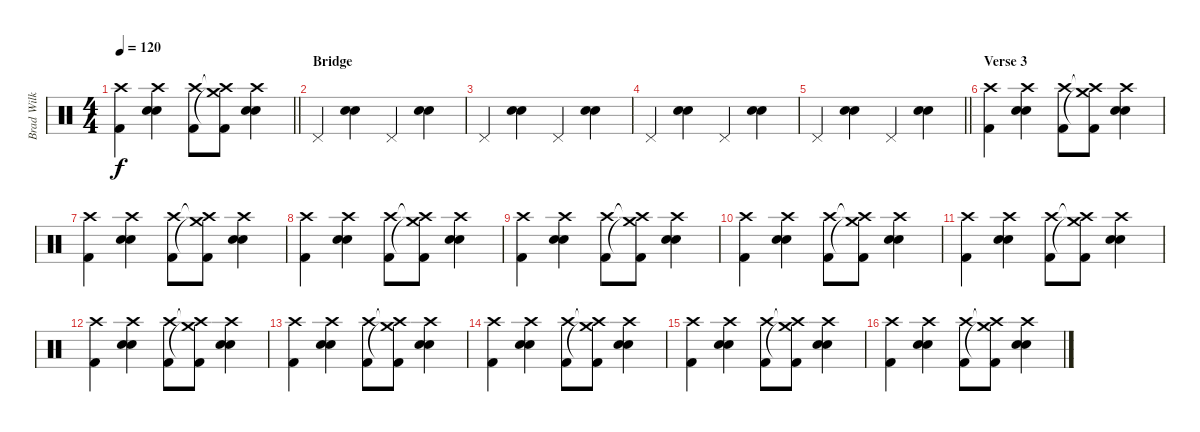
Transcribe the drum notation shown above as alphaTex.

\track ("Brad Wilk" "Brad Wilk") {instrument percussion}
\staff {score}
\articulation defaults
\ts (4 4)
\tempo 120
\clef neutral
\barLineRight lightlight
\ks c
("Crash high (hit)" "Kick (hit) 2").4{dy f} ("Electric Snare (hit)" "Snare (hit) 2" "Crash high (hit)").4 ("Crash high (hit)" "Kick (hit) 2").8 ("Crash high (hit)"{t} "Crash medium (hit)"{t} "Kick (hit) 2").8 ("Electric Snare (hit)" "Snare (hit) 2" "Crash high (hit)").4 |
\section ("" "Bridge")
"Pedal Hi-Hat (hit)".4 ("Electric Snare (hit)" "Snare (hit) 2").4 "Pedal Hi-Hat (hit)".4 ("Electric Snare (hit)" "Snare (hit) 2").4 |
"Pedal Hi-Hat (hit)".4 ("Electric Snare (hit)" "Snare (hit) 2").4 "Pedal Hi-Hat (hit)".4 ("Electric Snare (hit)" "Snare (hit) 2").4 |
"Pedal Hi-Hat (hit)".4 ("Electric Snare (hit)" "Snare (hit) 2").4 "Pedal Hi-Hat (hit)".4 ("Electric Snare (hit)" "Snare (hit) 2").4 |
\barLineRight lightlight "Pedal Hi-Hat (hit)".4
("Electric Snare (hit)" "Snare (hit) 2").4 "Pedal Hi-Hat (hit)".4 ("Electric Snare (hit)" "Snare (hit) 2").4 |
\section ("" "Verse 3")
("Crash high (hit)" "Kick (hit) 2").4 ("Electric Snare (hit)" "Snare (hit) 2" "Crash high (hit)").4 ("Crash high (hit)" "Kick (hit) 2").8 ("Crash high (hit)"{t} "Crash medium (hit)"{t} "Kick (hit) 2").8 ("Electric Snare (hit)" "Snare (hit) 2" "Crash high (hit)").4 |
("Crash high (hit)" "Kick (hit) 2").4 ("Electric Snare (hit)" "Snare (hit) 2" "Crash high (hit)").4 ("Crash high (hit)" "Kick (hit) 2").8 ("Crash high (hit)"{t} "Crash medium (hit)"{t} "Kick (hit) 2").8 ("Electric Snare (hit)" "Snare (hit) 2" "Crash high (hit)").4 |
("Crash high (hit)" "Kick (hit) 2").4 ("Electric Snare (hit)" "Snare (hit) 2" "Crash high (hit)").4 ("Crash high (hit)" "Kick (hit) 2").8 ("Crash high (hit)"{t} "Crash medium (hit)"{t} "Kick (hit) 2").8 ("Electric Snare (hit)" "Snare (hit) 2" "Crash high (hit)").4 |
("Crash high (hit)" "Kick (hit) 2").4 ("Electric Snare (hit)" "Snare (hit) 2" "Crash high (hit)").4 ("Crash high (hit)" "Kick (hit) 2").8 ("Crash high (hit)"{t} "Crash medium (hit)"{t} "Kick (hit) 2").8 ("Electric Snare (hit)" "Snare (hit) 2" "Crash high (hit)").4 |
("Crash high (hit)" "Kick (hit) 2").4 ("Electric Snare (hit)" "Snare (hit) 2" "Crash high (hit)").4 ("Crash high (hit)" "Kick (hit) 2").8 ("Crash high (hit)"{t} "Crash medium (hit)"{t} "Kick (hit) 2").8 ("Electric Snare (hit)" "Snare (hit) 2" "Crash high (hit)").4 |
("Crash high (hit)" "Kick (hit) 2").4 ("Electric Snare (hit)" "Snare (hit) 2" "Crash high (hit)").4 ("Crash high (hit)" "Kick (hit) 2").8 ("Crash high (hit)"{t} "Crash medium (hit)"{t} "Kick (hit) 2").8 ("Electric Snare (hit)" "Snare (hit) 2" "Crash high (hit)").4 |
("Crash high (hit)" "Kick (hit) 2").4 ("Electric Snare (hit)" "Snare (hit) 2" "Crash high (hit)").4 ("Crash high (hit)" "Kick (hit) 2").8 ("Crash high (hit)"{t} "Crash medium (hit)"{t} "Kick (hit) 2").8 ("Electric Snare (hit)" "Snare (hit) 2" "Crash high (hit)").4 |
("Crash high (hit)" "Kick (hit) 2").4 ("Electric Snare (hit)" "Snare (hit) 2" "Crash high (hit)").4 ("Crash high (hit)" "Kick (hit) 2").8 ("Crash high (hit)"{t} "Crash medium (hit)"{t} "Kick (hit) 2").8 ("Electric Snare (hit)" "Snare (hit) 2" "Crash high (hit)").4 |
("Crash high (hit)" "Kick (hit) 2").4 ("Electric Snare (hit)" "Snare (hit) 2" "Crash high (hit)").4 ("Crash high (hit)" "Kick (hit) 2").8 ("Crash high (hit)"{t} "Crash medium (hit)"{t} "Kick (hit) 2").8 ("Electric Snare (hit)" "Snare (hit) 2" "Crash high (hit)").4 |
("Crash high (hit)" "Kick (hit) 2").4 ("Electric Snare (hit)" "Snare (hit) 2" "Crash high (hit)").4 ("Crash high (hit)" "Kick (hit) 2").8 ("Crash high (hit)"{t} "Crash medium (hit)"{t} "Kick (hit) 2").8 ("Electric Snare (hit)" "Snare (hit) 2" "Crash high (hit)").4 |
("Crash high (hit)" "Kick (hit) 2").4 ("Electric Snare (hit)" "Snare (hit) 2" "Crash high (hit)").4 ("Crash high (hit)" "Kick (hit) 2").8 ("Crash high (hit)"{t} "Crash medium (hit)"{t} "Kick (hit) 2").8 ("Electric Snare (hit)" "Snare (hit) 2" "Crash high (hit)").4
